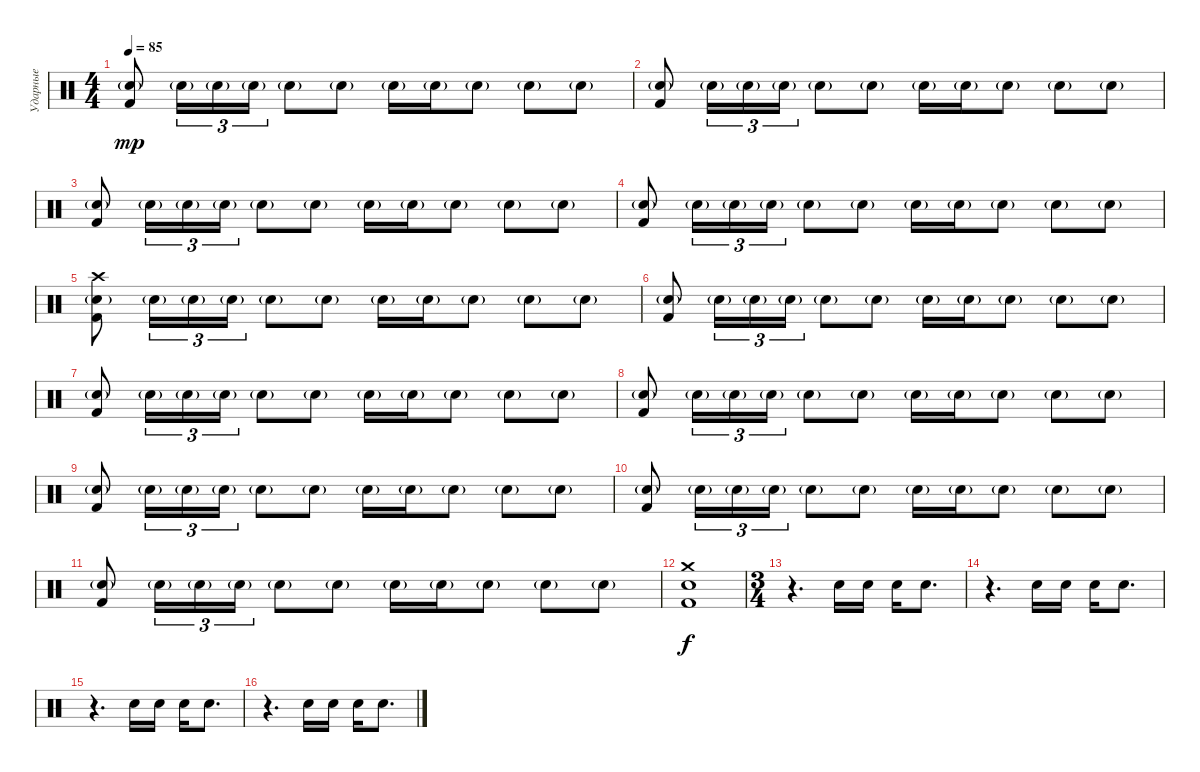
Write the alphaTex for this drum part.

\track ("Ударные" "Ударные") {instrument percussion}
\staff {score}
\articulation defaults
\ts (4 4)
\tempo 85
\clef neutral
\ks c
("Electric Snare (hit)"{g} "Kick (hit) 2").8{dy mp} "Electric Snare (hit)"{g}.16{tu (3 2)} "Electric Snare (hit)"{g}.16{tu (3 2)} "Electric Snare (hit)"{g}.16{tu (3 2)} "Electric Snare (hit)"{g}.8 "Electric Snare (hit)"{g}.8 "Electric Snare (hit)"{g}.16 "Electric Snare (hit)"{g}.16 "Electric Snare (hit)"{g}.8 "Electric Snare (hit)"{g}.8 "Electric Snare (hit)"{g}.8 |
("Electric Snare (hit)"{g} "Kick (hit) 2").8 "Electric Snare (hit)"{g}.16{tu (3 2)} "Electric Snare (hit)"{g}.16{tu (3 2)} "Electric Snare (hit)"{g}.16{tu (3 2)} "Electric Snare (hit)"{g}.8 "Electric Snare (hit)"{g}.8 "Electric Snare (hit)"{g}.16 "Electric Snare (hit)"{g}.16 "Electric Snare (hit)"{g}.8 "Electric Snare (hit)"{g}.8 "Electric Snare (hit)"{g}.8 |
("Electric Snare (hit)"{g} "Kick (hit) 2").8 "Electric Snare (hit)"{g}.16{tu (3 2)} "Electric Snare (hit)"{g}.16{tu (3 2)} "Electric Snare (hit)"{g}.16{tu (3 2)} "Electric Snare (hit)"{g}.8 "Electric Snare (hit)"{g}.8 "Electric Snare (hit)"{g}.16 "Electric Snare (hit)"{g}.16 "Electric Snare (hit)"{g}.8 "Electric Snare (hit)"{g}.8 "Electric Snare (hit)"{g}.8 |
("Electric Snare (hit)"{g} "Kick (hit) 2").8 "Electric Snare (hit)"{g}.16{tu (3 2)} "Electric Snare (hit)"{g}.16{tu (3 2)} "Electric Snare (hit)"{g}.16{tu (3 2)} "Electric Snare (hit)"{g}.8 "Electric Snare (hit)"{g}.8 "Electric Snare (hit)"{g}.16 "Electric Snare (hit)"{g}.16 "Electric Snare (hit)"{g}.8 "Electric Snare (hit)"{g}.8 "Electric Snare (hit)"{g}.8 |
("Crash high (hit)" "Electric Snare (hit)"{g} "Kick (hit) 2").8 "Electric Snare (hit)"{g}.16{tu (3 2)} "Electric Snare (hit)"{g}.16{tu (3 2)} "Electric Snare (hit)"{g}.16{tu (3 2)} "Electric Snare (hit)"{g}.8 "Electric Snare (hit)"{g}.8 "Electric Snare (hit)"{g}.16 "Electric Snare (hit)"{g}.16 "Electric Snare (hit)"{g}.8 "Electric Snare (hit)"{g}.8 "Electric Snare (hit)"{g}.8 |
("Electric Snare (hit)"{g} "Kick (hit) 2").8 "Electric Snare (hit)"{g}.16{tu (3 2)} "Electric Snare (hit)"{g}.16{tu (3 2)} "Electric Snare (hit)"{g}.16{tu (3 2)} "Electric Snare (hit)"{g}.8 "Electric Snare (hit)"{g}.8 "Electric Snare (hit)"{g}.16 "Electric Snare (hit)"{g}.16 "Electric Snare (hit)"{g}.8 "Electric Snare (hit)"{g}.8 "Electric Snare (hit)"{g}.8 |
("Electric Snare (hit)"{g} "Kick (hit) 2").8 "Electric Snare (hit)"{g}.16{tu (3 2)} "Electric Snare (hit)"{g}.16{tu (3 2)} "Electric Snare (hit)"{g}.16{tu (3 2)} "Electric Snare (hit)"{g}.8 "Electric Snare (hit)"{g}.8 "Electric Snare (hit)"{g}.16 "Electric Snare (hit)"{g}.16 "Electric Snare (hit)"{g}.8 "Electric Snare (hit)"{g}.8 "Electric Snare (hit)"{g}.8 |
("Electric Snare (hit)"{g} "Kick (hit) 2").8 "Electric Snare (hit)"{g}.16{tu (3 2)} "Electric Snare (hit)"{g}.16{tu (3 2)} "Electric Snare (hit)"{g}.16{tu (3 2)} "Electric Snare (hit)"{g}.8 "Electric Snare (hit)"{g}.8 "Electric Snare (hit)"{g}.16 "Electric Snare (hit)"{g}.16 "Electric Snare (hit)"{g}.8 "Electric Snare (hit)"{g}.8 "Electric Snare (hit)"{g}.8 |
("Electric Snare (hit)"{g} "Kick (hit) 2").8 "Electric Snare (hit)"{g}.16{tu (3 2)} "Electric Snare (hit)"{g}.16{tu (3 2)} "Electric Snare (hit)"{g}.16{tu (3 2)} "Electric Snare (hit)"{g}.8 "Electric Snare (hit)"{g}.8 "Electric Snare (hit)"{g}.16 "Electric Snare (hit)"{g}.16 "Electric Snare (hit)"{g}.8 "Electric Snare (hit)"{g}.8 "Electric Snare (hit)"{g}.8 |
("Electric Snare (hit)"{g} "Kick (hit) 2").8 "Electric Snare (hit)"{g}.16{tu (3 2)} "Electric Snare (hit)"{g}.16{tu (3 2)} "Electric Snare (hit)"{g}.16{tu (3 2)} "Electric Snare (hit)"{g}.8 "Electric Snare (hit)"{g}.8 "Electric Snare (hit)"{g}.16 "Electric Snare (hit)"{g}.16 "Electric Snare (hit)"{g}.8 "Electric Snare (hit)"{g}.8 "Electric Snare (hit)"{g}.8 |
("Electric Snare (hit)"{g} "Kick (hit) 2").8 "Electric Snare (hit)"{g}.16{tu (3 2)} "Electric Snare (hit)"{g}.16{tu (3 2)} "Electric Snare (hit)"{g}.16{tu (3 2)} "Electric Snare (hit)"{g}.8 "Electric Snare (hit)"{g}.8 "Electric Snare (hit)"{g}.16 "Electric Snare (hit)"{g}.16 "Electric Snare (hit)"{g}.8 "Electric Snare (hit)"{g}.8 "Electric Snare (hit)"{g}.8 |
("Crash medium (hit)" "Electric Snare (hit)" "Kick (hit) 2").1{dy f} |
\ts (3 4)
r.4{d} "Electric Snare (hit)".16 "Electric Snare (hit)".16 "Electric Snare (hit)".16 "Electric Snare (hit)".8{d} |
r.4{d} "Electric Snare (hit)".16 "Electric Snare (hit)".16 "Electric Snare (hit)".16 "Electric Snare (hit)".8{d} |
r.4{d} "Electric Snare (hit)".16 "Electric Snare (hit)".16 "Electric Snare (hit)".16 "Electric Snare (hit)".8{d} |
r.4{d} "Electric Snare (hit)".16 "Electric Snare (hit)".16 "Electric Snare (hit)".16 "Electric Snare (hit)".8{d}
